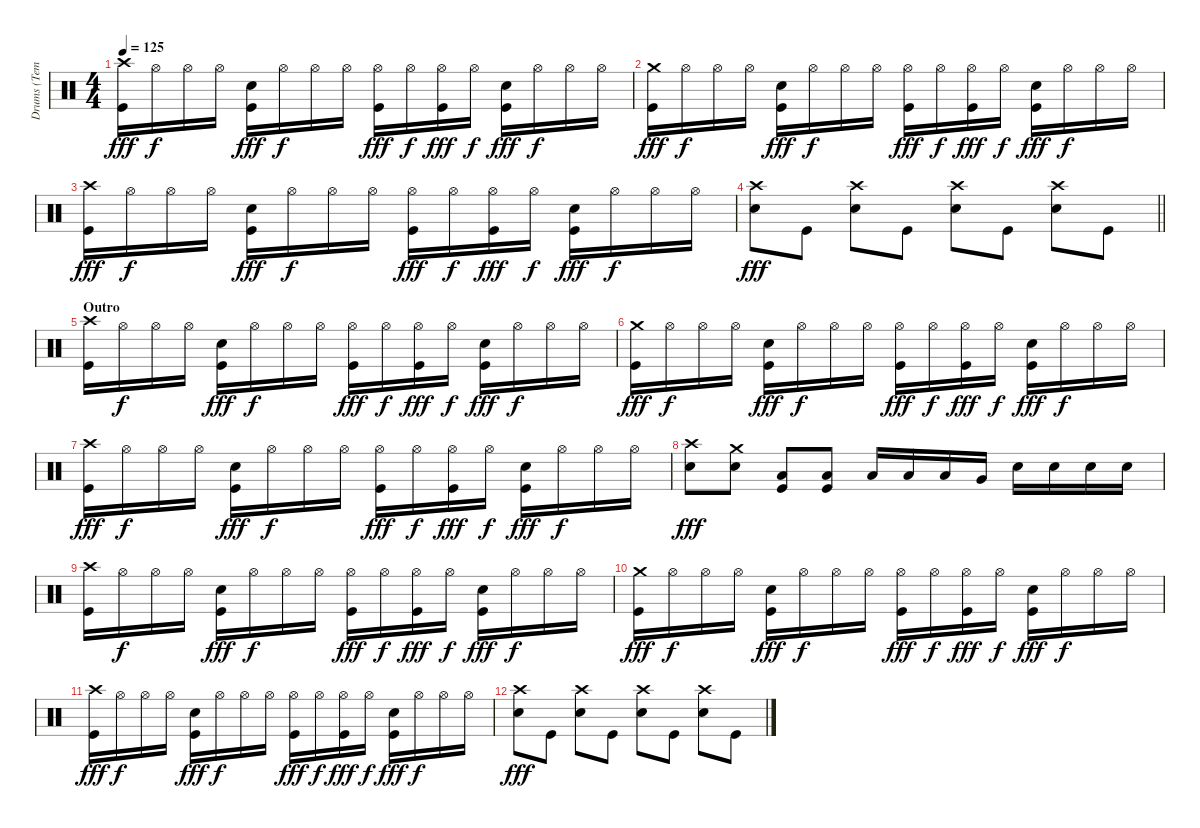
\track ("Drums (Tempesta)" "Drums (Tem") {instrument percussion}
\staff {score}
\articulation defaults
\ts (4 4)
\tempo 125
\clef neutral
\ks c
("Crash high (hit)" "Kick (hit)").16{dy fff} "Hi-Hat (open)".16{dy f} "Hi-Hat (open)".16 "Hi-Hat (open)".16 ("Electric Snare (hit)" "Kick (hit)").16{dy fff} "Hi-Hat (open)".16{dy f} "Hi-Hat (open)".16 "Hi-Hat (open)".16 ("Hi-Hat (open)" "Kick (hit)").16{dy fff} "Hi-Hat (open)".16{dy f} ("Hi-Hat (open)" "Kick (hit)").16{dy fff} "Hi-Hat (open)".16{dy f} ("Electric Snare (hit)" "Kick (hit)").16{dy fff} "Hi-Hat (open)".16{dy f} "Hi-Hat (open)".16 "Hi-Hat (open)".16 |
("Crash medium (hit)" "Kick (hit)").16{dy fff} "Hi-Hat (open)".16{dy f} "Hi-Hat (open)".16 "Hi-Hat (open)".16 ("Electric Snare (hit)" "Kick (hit)").16{dy fff} "Hi-Hat (open)".16{dy f} "Hi-Hat (open)".16 "Hi-Hat (open)".16 ("Hi-Hat (open)" "Kick (hit)").16{dy fff} "Hi-Hat (open)".16{dy f} ("Hi-Hat (open)" "Kick (hit)").16{dy fff} "Hi-Hat (open)".16{dy f} ("Electric Snare (hit)" "Kick (hit)").16{dy fff} "Hi-Hat (open)".16{dy f} "Hi-Hat (open)".16 "Hi-Hat (open)".16 |
("Crash high (hit)" "Kick (hit)").16{dy fff} "Hi-Hat (open)".16{dy f} "Hi-Hat (open)".16 "Hi-Hat (open)".16 ("Electric Snare (hit)" "Kick (hit)").16{dy fff} "Hi-Hat (open)".16{dy f} "Hi-Hat (open)".16 "Hi-Hat (open)".16 ("Hi-Hat (open)" "Kick (hit)").16{dy fff} "Hi-Hat (open)".16{dy f} ("Hi-Hat (open)" "Kick (hit)").16{dy fff} "Hi-Hat (open)".16{dy f} ("Electric Snare (hit)" "Kick (hit)").16{dy fff} "Hi-Hat (open)".16{dy f} "Hi-Hat (open)".16 "Hi-Hat (open)".16 |
\barLineRight lightlight
("Crash high (hit)" "Electric Snare (hit)").8{dy fff} "Kick (hit)".8 ("Crash high (hit)" "Electric Snare (hit)").8 "Kick (hit)".8 ("Crash high (hit)" "Electric Snare (hit)").8 "Kick (hit)".8 ("Crash high (hit)" "Electric Snare (hit)").8 "Kick (hit)".8 |
\section ("" "Outro")
("Crash high (hit)" "Kick (hit)").16 "Hi-Hat (open)".16{dy f} "Hi-Hat (open)".16 "Hi-Hat (open)".16 ("Electric Snare (hit)" "Kick (hit)").16{dy fff} "Hi-Hat (open)".16{dy f} "Hi-Hat (open)".16 "Hi-Hat (open)".16 ("Hi-Hat (open)" "Kick (hit)").16{dy fff} "Hi-Hat (open)".16{dy f} ("Hi-Hat (open)" "Kick (hit)").16{dy fff} "Hi-Hat (open)".16{dy f} ("Electric Snare (hit)" "Kick (hit)").16{dy fff} "Hi-Hat (open)".16{dy f} "Hi-Hat (open)".16 "Hi-Hat (open)".16 |
("Crash medium (hit)" "Kick (hit)").16{dy fff} "Hi-Hat (open)".16{dy f} "Hi-Hat (open)".16 "Hi-Hat (open)".16 ("Electric Snare (hit)" "Kick (hit)").16{dy fff} "Hi-Hat (open)".16{dy f} "Hi-Hat (open)".16 "Hi-Hat (open)".16 ("Hi-Hat (open)" "Kick (hit)").16{dy fff} "Hi-Hat (open)".16{dy f} ("Hi-Hat (open)" "Kick (hit)").16{dy fff} "Hi-Hat (open)".16{dy f} ("Electric Snare (hit)" "Kick (hit)").16{dy fff} "Hi-Hat (open)".16{dy f} "Hi-Hat (open)".16 "Hi-Hat (open)".16 |
("Crash high (hit)" "Kick (hit)").16{dy fff} "Hi-Hat (open)".16{dy f} "Hi-Hat (open)".16 "Hi-Hat (open)".16 ("Electric Snare (hit)" "Kick (hit)").16{dy fff} "Hi-Hat (open)".16{dy f} "Hi-Hat (open)".16 "Hi-Hat (open)".16 ("Hi-Hat (open)" "Kick (hit)").16{dy fff} "Hi-Hat (open)".16{dy f} ("Hi-Hat (open)" "Kick (hit)").16{dy fff} "Hi-Hat (open)".16{dy f} ("Electric Snare (hit)" "Kick (hit)").16{dy fff} "Hi-Hat (open)".16{dy f} "Hi-Hat (open)".16 "Hi-Hat (open)".16 |
("Crash high (hit)" "Electric Snare (hit)").8{dy fff} ("Crash medium (hit)" "Electric Snare (hit)").8 ("Low Floor Tom (hit)" "Kick (hit)").8 ("Low Floor Tom (hit)" "Kick (hit)").8 "Low Tom (hit)".16 "Low Tom (hit)".16 "Low Tom (hit)".16 "Very Low Tom (hit)".16 "Electric Snare (hit)".16 "Electric Snare (hit)".16 "Electric Snare (hit)".16 "Electric Snare (hit)".16 |
("Crash high (hit)" "Kick (hit)").16 "Hi-Hat (open)".16{dy f} "Hi-Hat (open)".16 "Hi-Hat (open)".16 ("Electric Snare (hit)" "Kick (hit)").16{dy fff} "Hi-Hat (open)".16{dy f} "Hi-Hat (open)".16 "Hi-Hat (open)".16 ("Hi-Hat (open)" "Kick (hit)").16{dy fff} "Hi-Hat (open)".16{dy f} ("Hi-Hat (open)" "Kick (hit)").16{dy fff} "Hi-Hat (open)".16{dy f} ("Electric Snare (hit)" "Kick (hit)").16{dy fff} "Hi-Hat (open)".16{dy f} "Hi-Hat (open)".16 "Hi-Hat (open)".16 |
("Crash medium (hit)" "Kick (hit)").16{dy fff} "Hi-Hat (open)".16{dy f} "Hi-Hat (open)".16 "Hi-Hat (open)".16 ("Electric Snare (hit)" "Kick (hit)").16{dy fff} "Hi-Hat (open)".16{dy f} "Hi-Hat (open)".16 "Hi-Hat (open)".16 ("Hi-Hat (open)" "Kick (hit)").16{dy fff} "Hi-Hat (open)".16{dy f} ("Hi-Hat (open)" "Kick (hit)").16{dy fff} "Hi-Hat (open)".16{dy f} ("Electric Snare (hit)" "Kick (hit)").16{dy fff} "Hi-Hat (open)".16{dy f} "Hi-Hat (open)".16 "Hi-Hat (open)".16 |
("Crash high (hit)" "Kick (hit)").16{dy fff} "Hi-Hat (open)".16{dy f} "Hi-Hat (open)".16 "Hi-Hat (open)".16 ("Electric Snare (hit)" "Kick (hit)").16{dy fff} "Hi-Hat (open)".16{dy f} "Hi-Hat (open)".16 "Hi-Hat (open)".16 ("Hi-Hat (open)" "Kick (hit)").16{dy fff} "Hi-Hat (open)".16{dy f} ("Hi-Hat (open)" "Kick (hit)").16{dy fff} "Hi-Hat (open)".16{dy f} ("Electric Snare (hit)" "Kick (hit)").16{dy fff} "Hi-Hat (open)".16{dy f} "Hi-Hat (open)".16 "Hi-Hat (open)".16 |
("Crash high (hit)" "Electric Snare (hit)").8{dy fff} "Kick (hit)".8 ("Crash high (hit)" "Electric Snare (hit)").8 "Kick (hit)".8 ("Crash high (hit)" "Electric Snare (hit)").8 "Kick (hit)".8 ("Crash high (hit)" "Electric Snare (hit)").8 "Kick (hit)".8
